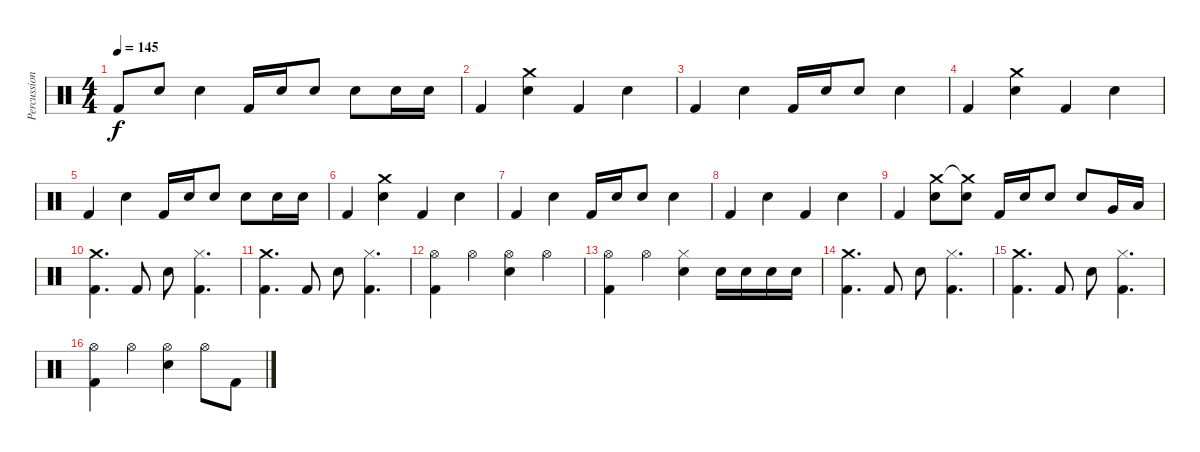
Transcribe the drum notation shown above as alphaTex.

\track ("Percussion" "Percussion") {instrument percussion}
\staff {score}
\articulation defaults
\ts (4 4)
\tempo 145
\clef neutral
\ks c "Kick (hit) 2".8{dy f} "Electric Snare (hit)".8 "Electric Snare (hit)".4 "Kick (hit) 2".16 "Electric Snare (hit)".16 "Electric Snare (hit)".8 "Electric Snare (hit)".8 "Electric Snare (hit)".16 "Electric Snare (hit)".16
|
"Kick (hit) 2".4 ("Crash medium (hit)" "Electric Snare (hit)").4 "Kick (hit) 2".4 "Electric Snare (hit)".4 |
"Kick (hit) 2".4 "Electric Snare (hit)".4 "Kick (hit) 2".16 "Electric Snare (hit)".16 "Electric Snare (hit)".8 "Electric Snare (hit)".4 |
"Kick (hit) 2".4 ("Crash medium (hit)" "Electric Snare (hit)").4 "Kick (hit) 2".4 "Electric Snare (hit)".4 |
"Kick (hit) 2".4 "Electric Snare (hit)".4 "Kick (hit) 2".16 "Electric Snare (hit)".16 "Electric Snare (hit)".8 "Electric Snare (hit)".8 "Electric Snare (hit)".16 "Electric Snare (hit)".16 |
"Kick (hit) 2".4 ("Crash medium (hit)" "Electric Snare (hit)").4 "Kick (hit) 2".4 "Electric Snare (hit)".4 |
"Kick (hit) 2".4 "Electric Snare (hit)".4 "Kick (hit) 2".16 "Electric Snare (hit)".16 "Electric Snare (hit)".8 "Electric Snare (hit)".4 |
"Kick (hit) 2".4 "Electric Snare (hit)".4 "Kick (hit) 2".4 "Electric Snare (hit)".4 |
"Kick (hit) 2".4 ("Crash medium (hit)" "Electric Snare (hit)").8 ("Crash medium (hit)"{t} "Electric Snare (hit)").8 "Kick (hit) 2".16 "Electric Snare (hit)".16 "Electric Snare (hit)".8 "Electric Snare (hit)".8 "Very Low Tom (hit)".16 "Low Floor Tom (hit)".16 |
("Crash medium (hit)" "Kick (hit) 2").4{d} "Kick (hit) 2".8 "Electric Snare (hit)".8 ("Hi-Hat (closed)" "Kick (hit) 2").4{d} |
("Crash medium (hit)" "Kick (hit) 2").4{d} "Kick (hit) 2".8 "Electric Snare (hit)".8 ("Hi-Hat (closed)" "Kick (hit) 2").4{d} |
("Hi-Hat (open)" "Kick (hit) 2").4 "Hi-Hat (open)".4 ("Hi-Hat (open)" "Electric Snare (hit)").4 "Hi-Hat (open)".4 |
("Hi-Hat (open)" "Kick (hit) 2").4 "Hi-Hat (open)".4 ("Hi-Hat (closed)" "Electric Snare (hit)").4 "Electric Snare (hit)".16 "Electric Snare (hit)".16 "Electric Snare (hit)".16 "Electric Snare (hit)".16 |
("Crash medium (hit)" "Kick (hit) 2").4{d} "Kick (hit) 2".8 "Electric Snare (hit)".8 ("Hi-Hat (closed)" "Kick (hit) 2").4{d} |
("Crash medium (hit)" "Kick (hit) 2").4{d} "Kick (hit) 2".8 "Electric Snare (hit)".8 ("Hi-Hat (closed)" "Kick (hit) 2").4{d} |
("Hi-Hat (open)" "Kick (hit) 2").4 "Hi-Hat (open)".4 ("Hi-Hat (open)" "Electric Snare (hit)").4 "Hi-Hat (open)".8 "Kick (hit) 2".8
